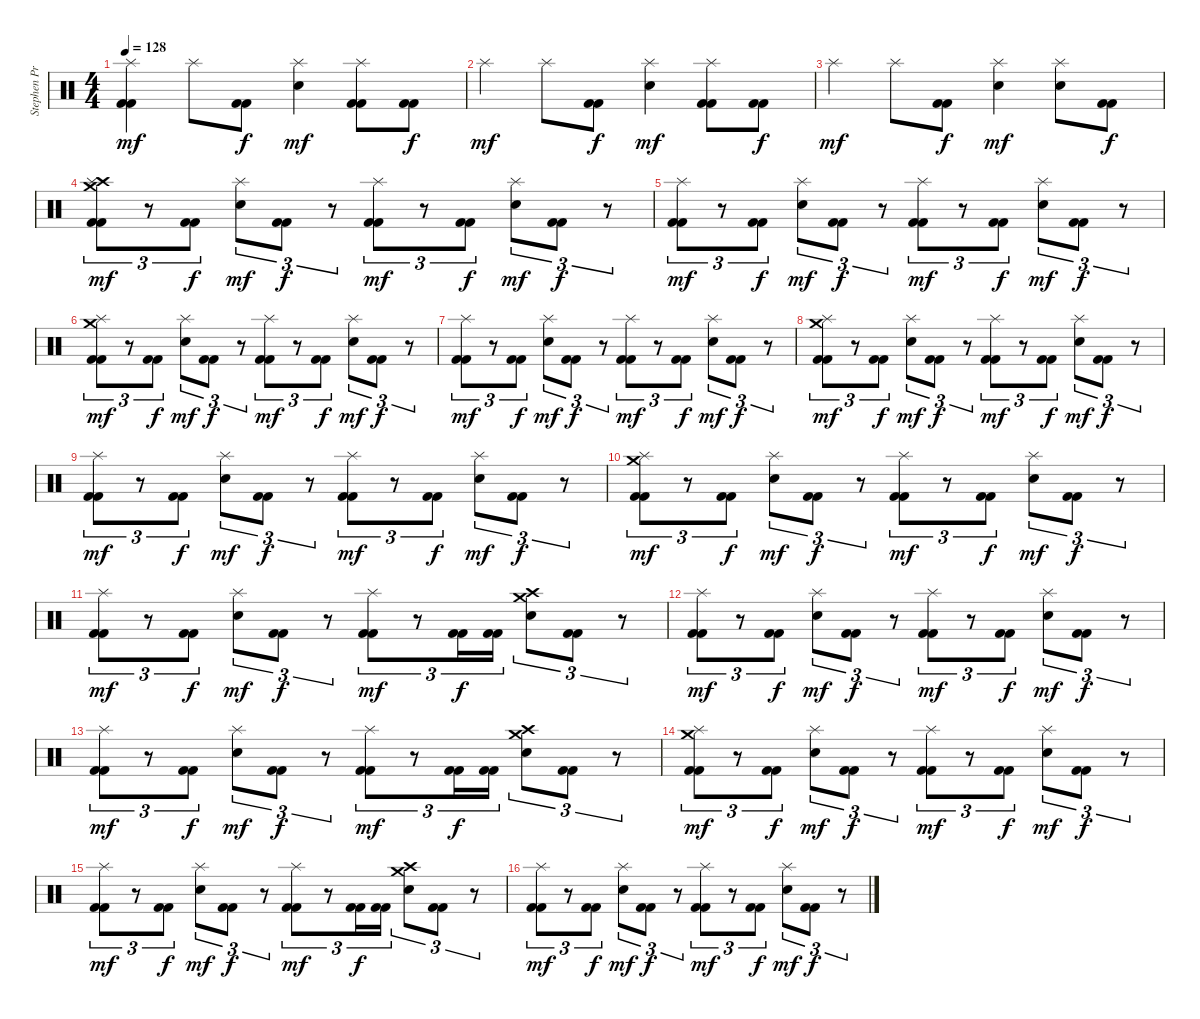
\track ("Stephen Priestly  (Drums)" "Stephen Pr") {instrument percussion}
\staff {score}
\articulation defaults
\ts (4 4)
\tempo 128
\clef neutral
\ks c
("Splash (hit)" "Kick (hit) 2" "Kick (hit) 2").4{dy mf} "Splash (hit)".8 ("Kick (hit) 2" "Kick (hit) 2").8{dy f} ("Splash (hit)" "Electric Snare (hit)").4{dy mf} ("Splash (hit)" "Kick (hit) 2" "Kick (hit) 2").8 ("Kick (hit) 2" "Kick (hit) 2").8{dy f} |
"Splash (hit)".4{dy mf} "Splash (hit)".8 ("Kick (hit) 2" "Kick (hit) 2").8{dy f} ("Splash (hit)" "Electric Snare (hit)").4{dy mf} ("Splash (hit)" "Kick (hit) 2" "Kick (hit) 2").8 ("Kick (hit) 2" "Kick (hit) 2").8{dy f} |
"Splash (hit)".4{dy mf} "Splash (hit)".8 ("Kick (hit) 2" "Kick (hit) 2").8{dy f} ("Splash (hit)" "Electric Snare (hit)").4{dy mf} ("Splash (hit)" "Electric Snare (hit)").8 ("Kick (hit) 2" "Kick (hit) 2").8{dy f} |
("Crash high (hit)" "Crash medium (hit)" "Splash (hit)" "Kick (hit) 2" "Kick (hit) 2").8{tu (3 2) dy mf} r.8{tu (3 2)} ("Kick (hit) 2" "Kick (hit) 2").8{tu (3 2) dy f} ("Splash (hit)" "Electric Snare (hit)").8{tu (3 2) dy mf} ("Kick (hit) 2" "Kick (hit) 2").8{tu (3 2) dy f} r.8{tu (3 2)} ("Splash (hit)" "Kick (hit) 2" "Kick (hit) 2").8{tu (3 2) dy mf} r.8{tu (3 2)} ("Kick (hit) 2" "Kick (hit) 2").8{tu (3 2) dy f} ("Splash (hit)" "Electric Snare (hit)").8{tu (3 2) dy mf} ("Kick (hit) 2" "Kick (hit) 2").8{tu (3 2) dy f} r.8{tu (3 2)} |
("Splash (hit)" "Kick (hit) 2" "Kick (hit) 2").8{tu (3 2) dy mf} r.8{tu (3 2)} ("Kick (hit) 2" "Kick (hit) 2").8{tu (3 2) dy f} ("Splash (hit)" "Electric Snare (hit)").8{tu (3 2) dy mf} ("Kick (hit) 2" "Kick (hit) 2").8{tu (3 2) dy f} r.8{tu (3 2)} ("Splash (hit)" "Kick (hit) 2" "Kick (hit) 2").8{tu (3 2) dy mf} r.8{tu (3 2)} ("Kick (hit) 2" "Kick (hit) 2").8{tu (3 2) dy f} ("Splash (hit)" "Electric Snare (hit)").8{tu (3 2) dy mf} ("Kick (hit) 2" "Kick (hit) 2").8{tu (3 2) dy f} r.8{tu (3 2)} |
("Crash medium (hit)" "Splash (hit)" "Kick (hit) 2" "Kick (hit) 2").8{tu (3 2) dy mf} r.8{tu (3 2)} ("Kick (hit) 2" "Kick (hit) 2").8{tu (3 2) dy f} ("Splash (hit)" "Electric Snare (hit)").8{tu (3 2) dy mf} ("Kick (hit) 2" "Kick (hit) 2").8{tu (3 2) dy f} r.8{tu (3 2)} ("Splash (hit)" "Kick (hit) 2" "Kick (hit) 2").8{tu (3 2) dy mf} r.8{tu (3 2)} ("Kick (hit) 2" "Kick (hit) 2").8{tu (3 2) dy f} ("Splash (hit)" "Electric Snare (hit)").8{tu (3 2) dy mf} ("Kick (hit) 2" "Kick (hit) 2").8{tu (3 2) dy f} r.8{tu (3 2)} |
("Splash (hit)" "Kick (hit) 2" "Kick (hit) 2").8{tu (3 2) dy mf} r.8{tu (3 2)} ("Kick (hit) 2" "Kick (hit) 2").8{tu (3 2) dy f} ("Splash (hit)" "Electric Snare (hit)").8{tu (3 2) dy mf} ("Kick (hit) 2" "Kick (hit) 2").8{tu (3 2) dy f} r.8{tu (3 2)} ("Splash (hit)" "Kick (hit) 2" "Kick (hit) 2").8{tu (3 2) dy mf} r.8{tu (3 2)} ("Kick (hit) 2" "Kick (hit) 2").8{tu (3 2) dy f} ("Splash (hit)" "Electric Snare (hit)").8{tu (3 2) dy mf} ("Kick (hit) 2" "Kick (hit) 2").8{tu (3 2) dy f} r.8{tu (3 2)} |
("Crash medium (hit)" "Splash (hit)" "Kick (hit) 2" "Kick (hit) 2").8{tu (3 2) dy mf} r.8{tu (3 2)} ("Kick (hit) 2" "Kick (hit) 2").8{tu (3 2) dy f} ("Splash (hit)" "Electric Snare (hit)").8{tu (3 2) dy mf} ("Kick (hit) 2" "Kick (hit) 2").8{tu (3 2) dy f} r.8{tu (3 2)} ("Splash (hit)" "Kick (hit) 2" "Kick (hit) 2").8{tu (3 2) dy mf} r.8{tu (3 2)} ("Kick (hit) 2" "Kick (hit) 2").8{tu (3 2) dy f} ("Splash (hit)" "Electric Snare (hit)").8{tu (3 2) dy mf} ("Kick (hit) 2" "Kick (hit) 2").8{tu (3 2) dy f} r.8{tu (3 2)} |
("Splash (hit)" "Kick (hit) 2" "Kick (hit) 2").8{tu (3 2) dy mf} r.8{tu (3 2)} ("Kick (hit) 2" "Kick (hit) 2").8{tu (3 2) dy f} ("Splash (hit)" "Electric Snare (hit)").8{tu (3 2) dy mf} ("Kick (hit) 2" "Kick (hit) 2").8{tu (3 2) dy f} r.8{tu (3 2)} ("Splash (hit)" "Kick (hit) 2" "Kick (hit) 2").8{tu (3 2) dy mf} r.8{tu (3 2)} ("Kick (hit) 2" "Kick (hit) 2").8{tu (3 2) dy f} ("Splash (hit)" "Electric Snare (hit)").8{tu (3 2) dy mf} ("Kick (hit) 2" "Kick (hit) 2").8{tu (3 2) dy f} r.8{tu (3 2)} |
("Crash medium (hit)" "Splash (hit)" "Kick (hit) 2" "Kick (hit) 2").8{tu (3 2) dy mf} r.8{tu (3 2)} ("Kick (hit) 2" "Kick (hit) 2").8{tu (3 2) dy f} ("Splash (hit)" "Electric Snare (hit)").8{tu (3 2) dy mf} ("Kick (hit) 2" "Kick (hit) 2").8{tu (3 2) dy f} r.8{tu (3 2)} ("Splash (hit)" "Kick (hit) 2" "Kick (hit) 2").8{tu (3 2) dy mf} r.8{tu (3 2)} ("Kick (hit) 2" "Kick (hit) 2").8{tu (3 2) dy f} ("Splash (hit)" "Electric Snare (hit)").8{tu (3 2) dy mf} ("Kick (hit) 2" "Kick (hit) 2").8{tu (3 2) dy f} r.8{tu (3 2)} |
("Splash (hit)" "Kick (hit) 2" "Kick (hit) 2").8{tu (3 2) dy mf} r.8{tu (3 2)} ("Kick (hit) 2" "Kick (hit) 2").8{tu (3 2) dy f} ("Splash (hit)" "Electric Snare (hit)").8{tu (3 2) dy mf} ("Kick (hit) 2" "Kick (hit) 2").8{tu (3 2) dy f} r.8{tu (3 2)} ("Splash (hit)" "Kick (hit) 2" "Kick (hit) 2").8{tu (3 2) dy mf} r.8{tu (3 2)} ("Kick (hit) 2" "Kick (hit) 2").16{tu (3 2) dy f} ("Kick (hit) 2" "Kick (hit) 2").16{tu (3 2)} ("Crash medium (hit)" "Crash high (hit)" "Electric Snare (hit)").8{tu (3 2)} ("Kick (hit) 2" "Kick (hit) 2").8{tu (3 2)} r.8{tu (3 2)} |
("Splash (hit)" "Kick (hit) 2" "Kick (hit) 2").8{tu (3 2) dy mf} r.8{tu (3 2)} ("Kick (hit) 2" "Kick (hit) 2").8{tu (3 2) dy f} ("Splash (hit)" "Electric Snare (hit)").8{tu (3 2) dy mf} ("Kick (hit) 2" "Kick (hit) 2").8{tu (3 2) dy f} r.8{tu (3 2)} ("Splash (hit)" "Kick (hit) 2" "Kick (hit) 2").8{tu (3 2) dy mf} r.8{tu (3 2)} ("Kick (hit) 2" "Kick (hit) 2").8{tu (3 2) dy f} ("Splash (hit)" "Electric Snare (hit)").8{tu (3 2) dy mf} ("Kick (hit) 2" "Kick (hit) 2").8{tu (3 2) dy f} r.8{tu (3 2)} |
("Splash (hit)" "Kick (hit) 2" "Kick (hit) 2").8{tu (3 2) dy mf} r.8{tu (3 2)} ("Kick (hit) 2" "Kick (hit) 2").8{tu (3 2) dy f} ("Splash (hit)" "Electric Snare (hit)").8{tu (3 2) dy mf} ("Kick (hit) 2" "Kick (hit) 2").8{tu (3 2) dy f} r.8{tu (3 2)} ("Splash (hit)" "Kick (hit) 2" "Kick (hit) 2").8{tu (3 2) dy mf} r.8{tu (3 2)} ("Kick (hit) 2" "Kick (hit) 2").16{tu (3 2) dy f} ("Kick (hit) 2" "Kick (hit) 2").16{tu (3 2)} ("Crash medium (hit)" "Crash high (hit)" "Electric Snare (hit)").8{tu (3 2)} ("Kick (hit) 2" "Kick (hit) 2").8{tu (3 2)} r.8{tu (3 2)} |
("Crash medium (hit)" "Splash (hit)" "Kick (hit) 2" "Kick (hit) 2").8{tu (3 2) dy mf} r.8{tu (3 2)} ("Kick (hit) 2" "Kick (hit) 2").8{tu (3 2) dy f} ("Splash (hit)" "Electric Snare (hit)").8{tu (3 2) dy mf} ("Kick (hit) 2" "Kick (hit) 2").8{tu (3 2) dy f} r.8{tu (3 2)} ("Splash (hit)" "Kick (hit) 2" "Kick (hit) 2").8{tu (3 2) dy mf} r.8{tu (3 2)} ("Kick (hit) 2" "Kick (hit) 2").8{tu (3 2) dy f} ("Splash (hit)" "Electric Snare (hit)").8{tu (3 2) dy mf} ("Kick (hit) 2" "Kick (hit) 2").8{tu (3 2) dy f} r.8{tu (3 2)} |
("Splash (hit)" "Kick (hit) 2" "Kick (hit) 2").8{tu (3 2) dy mf} r.8{tu (3 2)} ("Kick (hit) 2" "Kick (hit) 2").8{tu (3 2) dy f} ("Splash (hit)" "Electric Snare (hit)").8{tu (3 2) dy mf} ("Kick (hit) 2" "Kick (hit) 2").8{tu (3 2) dy f} r.8{tu (3 2)} ("Splash (hit)" "Kick (hit) 2" "Kick (hit) 2").8{tu (3 2) dy mf} r.8{tu (3 2)} ("Kick (hit) 2" "Kick (hit) 2").16{tu (3 2) dy f} ("Kick (hit) 2" "Kick (hit) 2").16{tu (3 2)} ("Crash medium (hit)" "Crash high (hit)" "Electric Snare (hit)").8{tu (3 2)} ("Kick (hit) 2" "Kick (hit) 2").8{tu (3 2)} r.8{tu (3 2)} |
("Splash (hit)" "Kick (hit) 2" "Kick (hit) 2").8{tu (3 2) dy mf} r.8{tu (3 2)} ("Kick (hit) 2" "Kick (hit) 2").8{tu (3 2) dy f} ("Splash (hit)" "Electric Snare (hit)").8{tu (3 2) dy mf} ("Kick (hit) 2" "Kick (hit) 2").8{tu (3 2) dy f} r.8{tu (3 2)} ("Splash (hit)" "Kick (hit) 2" "Kick (hit) 2").8{tu (3 2) dy mf} r.8{tu (3 2)} ("Kick (hit) 2" "Kick (hit) 2").8{tu (3 2) dy f} ("Splash (hit)" "Electric Snare (hit)").8{tu (3 2) dy mf} ("Kick (hit) 2" "Kick (hit) 2").8{tu (3 2) dy f} r.8{tu (3 2)}
